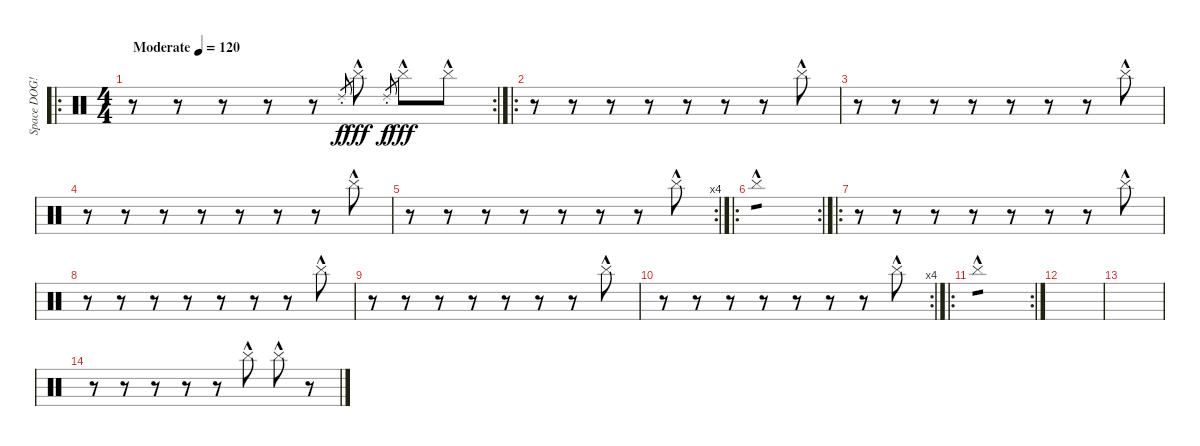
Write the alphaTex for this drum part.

\track ("Space DOG!" "Space DOG!") {instrument percussion}
\staff {score}
\articulation defaults
\ro
\rc 2
\ts (4 4)
\tempo (120 "Moderate")
\clef neutral
\ks c
r.8{dy f} r.8 r.8 r.8 r.8 "Ride (choke) 2".8{gr} "Cymbal (hit)"{hac}.8{dy fff} "Ride (choke) 2".8{gr dy f} "Cymbal (hit)"{hac}.8{dy fff} "Cymbal (hit)"{hac}.8 |
\ro
r.8 r.8 r.8 r.8 r.8 r.8 r.8 "Cymbal (hit)"{hac}.8 |
r.8 r.8 r.8 r.8 r.8 r.8 r.8 "Cymbal (hit)"{hac}.8 |
r.8 r.8 r.8 r.8 r.8 r.8 r.8 "Cymbal (hit)"{hac}.8 |
\rc 4
r.8 r.8 r.8 r.8 r.8 r.8 r.8 "Cymbal (hit)"{hac}.8 |
\ro
\rc 2 "Cymbal (hit)"{hac}.1{tp 1}
|
\ro
r.8 r.8 r.8 r.8 r.8 r.8 r.8 "Cymbal (hit)"{hac}.8 |
r.8 r.8 r.8 r.8 r.8 r.8 r.8 "Cymbal (hit)"{hac}.8 |
r.8 r.8 r.8 r.8 r.8 r.8 r.8 "Cymbal (hit)"{hac}.8 |
\rc 4
r.8 r.8 r.8 r.8 r.8 r.8 r.8 "Cymbal (hit)"{hac}.8 |
\ro
\rc 2 "Cymbal (hit)"{hac}.1{tp 1}
|
|
|
r.8 r.8 r.8 r.8 r.8 "Cymbal (hit)"{hac}.8 "Cymbal (hit)"{hac}.8 r.8
